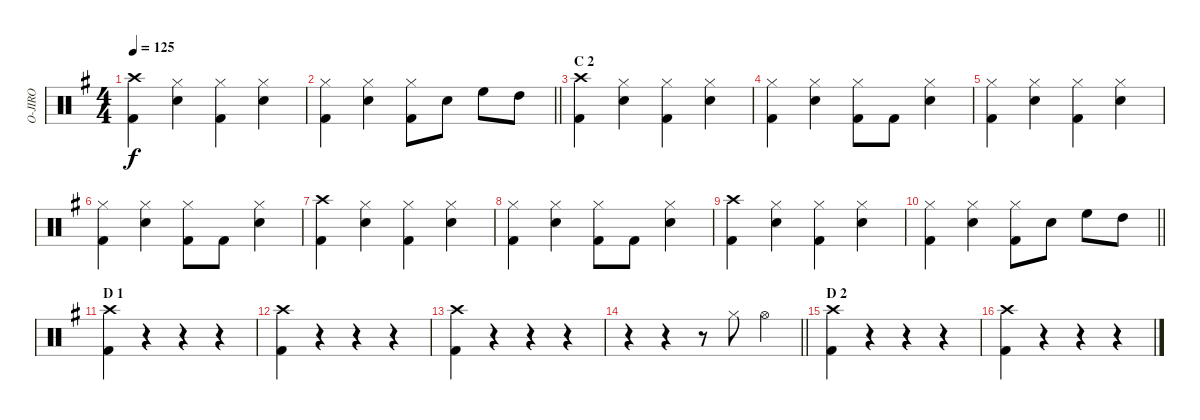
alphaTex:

\track ("O-JIRO" "O-JIRO") {instrument percussion}
\staff {score}
\articulation defaults
\ts (4 4)
\tempo 125
\clef neutral
\ks g
("Crash high (hit)" "Kick (hit) 2").4{dy f} ("Hi-Hat (closed)" "Snare (hit) 2").4 ("Hi-Hat (closed)" "Kick (hit) 2").4 ("Hi-Hat (closed)" "Snare (hit) 2").4 |
\barLineRight lightlight
("Hi-Hat (closed)" "Kick (hit) 2").4 ("Hi-Hat (closed)" "Snare (hit) 2").4 ("Hi-Hat (closed)" "Kick (hit) 2").8 "Snare (hit) 2".8 "High Floor Tom (hit)".8 "High Tom (hit)".8 |
\section ("" "C 2")
("Crash high (hit)" "Kick (hit) 2").4 ("Hi-Hat (closed)" "Snare (hit) 2").4 ("Hi-Hat (closed)" "Kick (hit) 2").4 ("Hi-Hat (closed)" "Snare (hit) 2").4 |
("Hi-Hat (closed)" "Kick (hit) 2").4 ("Hi-Hat (closed)" "Snare (hit) 2").4 ("Hi-Hat (closed)" "Kick (hit) 2").8 "Kick (hit) 2".8 ("Hi-Hat (closed)" "Snare (hit) 2").4 |
("Hi-Hat (closed)" "Kick (hit) 2").4 ("Hi-Hat (closed)" "Snare (hit) 2").4 ("Hi-Hat (closed)" "Kick (hit) 2").4 ("Hi-Hat (closed)" "Snare (hit) 2").4 |
("Hi-Hat (closed)" "Kick (hit) 2").4 ("Hi-Hat (closed)" "Snare (hit) 2").4 ("Hi-Hat (closed)" "Kick (hit) 2").8 "Kick (hit) 2".8 ("Hi-Hat (closed)" "Snare (hit) 2").4 |
("Crash high (hit)" "Kick (hit) 2").4 ("Hi-Hat (closed)" "Snare (hit) 2").4 ("Hi-Hat (closed)" "Kick (hit) 2").4 ("Hi-Hat (closed)" "Snare (hit) 2").4 |
("Hi-Hat (closed)" "Kick (hit) 2").4 ("Hi-Hat (closed)" "Snare (hit) 2").4 ("Hi-Hat (closed)" "Kick (hit) 2").8 "Kick (hit) 2".8 ("Hi-Hat (closed)" "Snare (hit) 2").4 |
("Crash high (hit)" "Kick (hit) 2").4 ("Hi-Hat (closed)" "Snare (hit) 2").4 ("Hi-Hat (closed)" "Kick (hit) 2").4 ("Hi-Hat (closed)" "Snare (hit) 2").4 |
\barLineRight lightlight
("Hi-Hat (closed)" "Kick (hit) 2").4 ("Hi-Hat (closed)" "Snare (hit) 2").4 ("Hi-Hat (closed)" "Kick (hit) 2").8 "Snare (hit) 2".8 "High Floor Tom (hit)".8 "High Tom (hit)".8 |
\section ("" "D 1")
("Crash high (hit)" "Kick (hit) 2").4 r.4 r.4 r.4 |
("Crash high (hit)" "Kick (hit) 2").4 r.4 r.4 r.4 |
("Crash high (hit)" "Kick (hit) 2").4 r.4 r.4 r.4 |
\barLineRight lightlight
r.4 r.4 r.8 "Hi-Hat (closed)".8 "Hi-Hat (open)".4 |
\section ("" "D 2")
("Crash high (hit)" "Kick (hit) 2").4 r.4 r.4 r.4 |
("Crash high (hit)" "Kick (hit) 2").4 r.4 r.4 r.4
